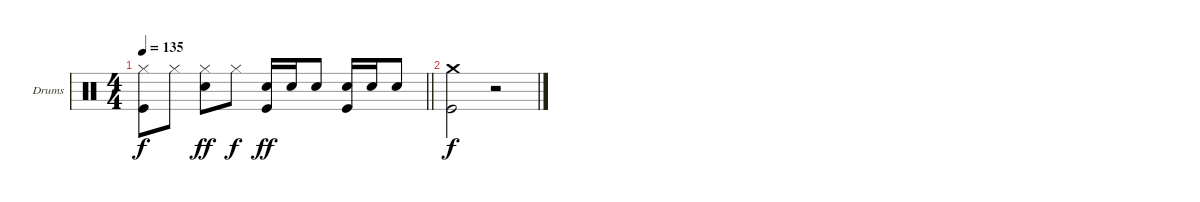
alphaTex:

\bracketExtendMode groupsimilarinstruments
\firstSystemTrackNameOrientation horizontal
\otherSystemsTrackNameOrientation horizontal
\track ("Drumkit" "Drums") {instrument percussion}
\staff {score}
\articulation defaults
\ts (4 4)
\tempo 135
\clef neutral
\barLineRight lightlight
\ks c
("Hi-Hat (closed)" "Kick (hit)").8{dy f} "Hi-Hat (closed)".8 ("Hi-Hat (closed)" "Snare (hit) 2").8{dy ff} "Hi-Hat (closed)".8{dy f} ("Snare (hit) 2" "Kick (hit)").16{dy ff} "Snare (hit) 2".16 "Snare (hit) 2".8 ("Snare (hit) 2" "Kick (hit)").16 "Snare (hit) 2".16 "Snare (hit) 2".8 |
("Crash medium (hit)" "Kick (hit)").2{dy f} r.2
